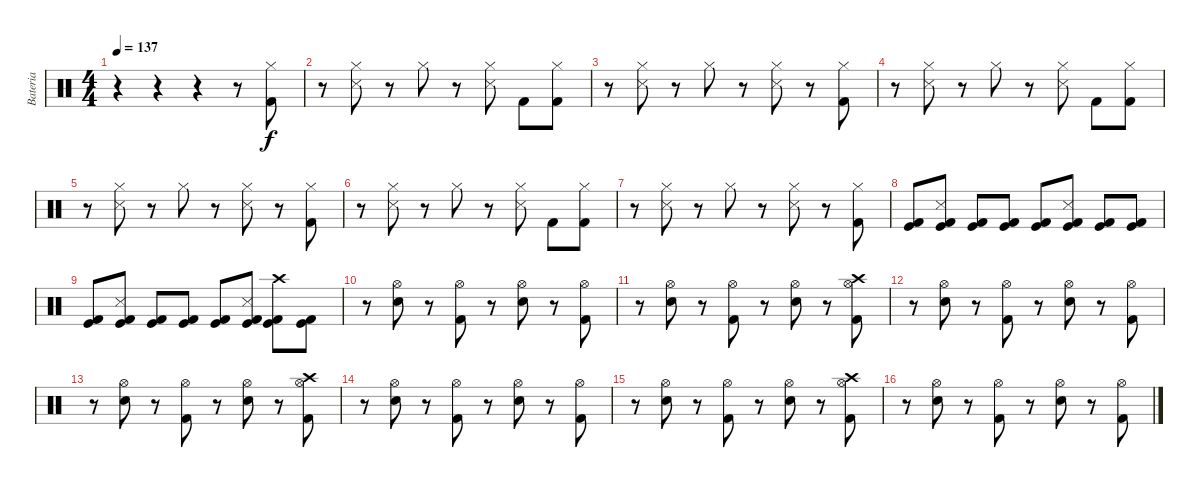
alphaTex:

\track ("Bateria" "Bateria") {instrument percussion}
\staff {score}
\articulation defaults
\ts (4 4)
\tempo 137
\clef neutral
\ks c
r.4{dy f} r.4 r.4 r.8 ("Kick (hit) 2" "Hi-Hat (closed)").8 |
r.8 ("Snare (side stick) 3" "Hi-Hat (closed)").8 r.8 "Hi-Hat (closed)".8 r.8 ("Snare (side stick) 3" "Hi-Hat (closed)").8 "Kick (hit) 2".8 ("Kick (hit) 2" "Hi-Hat (closed)").8 |
r.8 ("Snare (side stick) 3" "Hi-Hat (closed)").8 r.8 "Hi-Hat (closed)".8 r.8 ("Snare (side stick) 3" "Hi-Hat (closed)").8 r.8 ("Kick (hit) 2" "Hi-Hat (closed)").8 |
r.8 ("Snare (side stick) 3" "Hi-Hat (closed)").8 r.8 "Hi-Hat (closed)".8 r.8 ("Snare (side stick) 3" "Hi-Hat (closed)").8 "Kick (hit) 2".8 ("Kick (hit) 2" "Hi-Hat (closed)").8 |
r.8 ("Snare (side stick) 3" "Hi-Hat (closed)").8 r.8 "Hi-Hat (closed)".8 r.8 ("Snare (side stick) 3" "Hi-Hat (closed)").8 r.8 ("Kick (hit) 2" "Hi-Hat (closed)").8 |
r.8 ("Snare (side stick) 3" "Hi-Hat (closed)").8 r.8 "Hi-Hat (closed)".8 r.8 ("Snare (side stick) 3" "Hi-Hat (closed)").8 "Kick (hit) 2".8 ("Kick (hit) 2" "Hi-Hat (closed)").8 |
r.8 ("Snare (side stick) 3" "Hi-Hat (closed)").8 r.8 "Hi-Hat (closed)".8 r.8 ("Snare (side stick) 3" "Hi-Hat (closed)").8 r.8 ("Kick (hit) 2" "Hi-Hat (closed)").8 |
("Kick (hit) 2" "Kick (hit)").8 ("Kick (hit) 2" "Kick (hit)" "Snare (side stick) 3").8 ("Kick (hit) 2" "Kick (hit)").8 ("Kick (hit) 2" "Kick (hit)").8 ("Kick (hit) 2" "Kick (hit)").8 ("Kick (hit) 2" "Kick (hit)" "Snare (side stick) 3").8 ("Kick (hit) 2" "Kick (hit)").8 ("Kick (hit) 2" "Kick (hit)").8 |
("Kick (hit) 2" "Kick (hit)").8 ("Kick (hit) 2" "Kick (hit)" "Snare (side stick) 3").8 ("Kick (hit) 2" "Kick (hit)").8 ("Kick (hit) 2" "Kick (hit)").8 ("Kick (hit) 2" "Kick (hit)").8 ("Kick (hit) 2" "Kick (hit)" "Snare (side stick) 3").8 ("Kick (hit) 2" "Kick (hit)" "Crash high (hit)").8 ("Kick (hit) 2" "Kick (hit)").8 |
r.8 ("Snare (hit) 2" "Hi-Hat (open)").8 r.8 ("Kick (hit) 2" "Hi-Hat (open)").8 r.8 ("Snare (hit) 2" "Hi-Hat (open)").8 r.8 ("Kick (hit) 2" "Hi-Hat (open)").8 |
r.8 ("Snare (hit) 2" "Hi-Hat (open)").8 r.8 ("Kick (hit) 2" "Hi-Hat (open)").8 r.8 ("Snare (hit) 2" "Hi-Hat (open)").8 r.8 ("Kick (hit) 2" "Hi-Hat (open)" "Crash high (hit)").8 |
r.8 ("Snare (hit) 2" "Hi-Hat (open)").8 r.8 ("Kick (hit) 2" "Hi-Hat (open)").8 r.8 ("Snare (hit) 2" "Hi-Hat (open)").8 r.8 ("Kick (hit) 2" "Hi-Hat (open)").8 |
r.8 ("Snare (hit) 2" "Hi-Hat (open)").8 r.8 ("Kick (hit) 2" "Hi-Hat (open)").8 r.8 ("Snare (hit) 2" "Hi-Hat (open)").8 r.8 ("Kick (hit) 2" "Hi-Hat (open)" "Crash high (hit)").8 |
r.8 ("Snare (hit) 2" "Hi-Hat (open)").8 r.8 ("Kick (hit) 2" "Hi-Hat (open)").8 r.8 ("Snare (hit) 2" "Hi-Hat (open)").8 r.8 ("Kick (hit) 2" "Hi-Hat (open)").8 |
r.8 ("Snare (hit) 2" "Hi-Hat (open)").8 r.8 ("Kick (hit) 2" "Hi-Hat (open)").8 r.8 ("Snare (hit) 2" "Hi-Hat (open)").8 r.8 ("Kick (hit) 2" "Hi-Hat (open)" "Crash high (hit)").8 |
r.8 ("Snare (hit) 2" "Hi-Hat (open)").8 r.8 ("Kick (hit) 2" "Hi-Hat (open)").8 r.8 ("Snare (hit) 2" "Hi-Hat (open)").8 r.8 ("Kick (hit) 2" "Hi-Hat (open)").8
